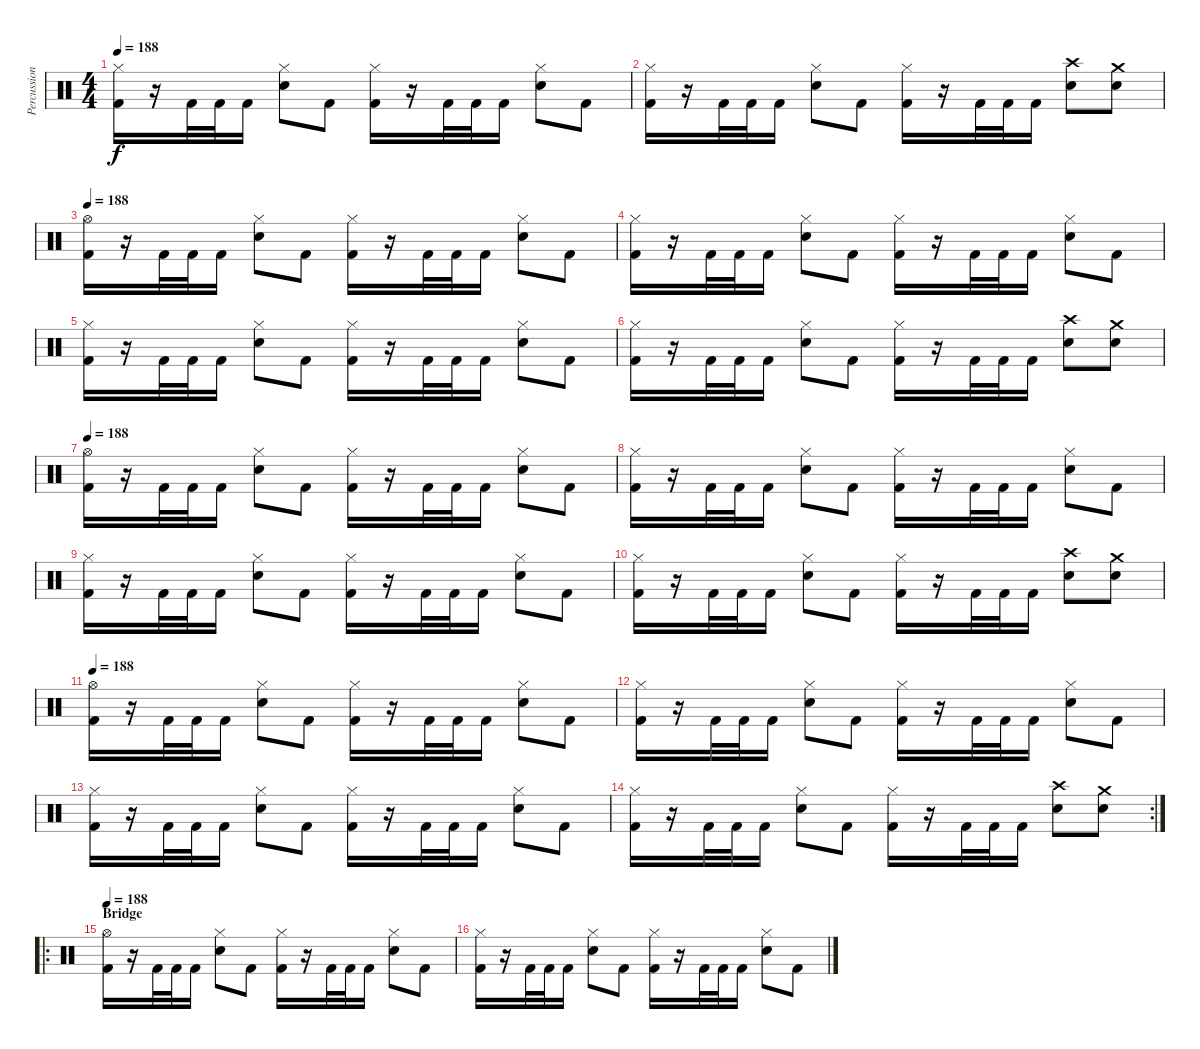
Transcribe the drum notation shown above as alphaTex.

\track ("Percussion" "Percussion") {instrument percussion}
\staff {score}
\articulation defaults
\ts (4 4)
\tempo 188
\clef neutral
\ks c
("Hi-Hat (closed)" "Kick (hit) 2").16{dy f} r.16 "Kick (hit) 2".32 "Kick (hit) 2".32 "Kick (hit) 2".16 ("Hi-Hat (closed)" "Electric Snare (hit)").8 "Kick (hit) 2".8 ("Hi-Hat (closed)" "Kick (hit) 2").16 r.16 "Kick (hit) 2".32 "Kick (hit) 2".32 "Kick (hit) 2".16 ("Hi-Hat (closed)" "Electric Snare (hit)").8 "Kick (hit) 2".8 |
("Hi-Hat (closed)" "Kick (hit) 2").16 r.16 "Kick (hit) 2".32 "Kick (hit) 2".32 "Kick (hit) 2".16 ("Hi-Hat (closed)" "Electric Snare (hit)").8 "Kick (hit) 2".8 ("Hi-Hat (closed)" "Kick (hit) 2").16 r.16 "Kick (hit) 2".32 "Kick (hit) 2".32 "Kick (hit) 2".16 ("Crash high (hit)" "Electric Snare (hit)").8 ("Crash medium (hit)" "Electric Snare (hit)").8 |
\tempo 188
("Hi-Hat (open)" "Kick (hit) 2").16 r.16 "Kick (hit) 2".32 "Kick (hit) 2".32 "Kick (hit) 2".16 ("Hi-Hat (closed)" "Electric Snare (hit)").8 "Kick (hit) 2".8 ("Hi-Hat (closed)" "Kick (hit) 2").16 r.16 "Kick (hit) 2".32 "Kick (hit) 2".32 "Kick (hit) 2".16 ("Hi-Hat (closed)" "Electric Snare (hit)").8 "Kick (hit) 2".8 |
("Hi-Hat (closed)" "Kick (hit) 2").16 r.16 "Kick (hit) 2".32 "Kick (hit) 2".32 "Kick (hit) 2".16 ("Hi-Hat (closed)" "Electric Snare (hit)").8 "Kick (hit) 2".8 ("Hi-Hat (closed)" "Kick (hit) 2").16 r.16 "Kick (hit) 2".32 "Kick (hit) 2".32 "Kick (hit) 2".16 ("Hi-Hat (closed)" "Electric Snare (hit)").8 "Kick (hit) 2".8 |
("Hi-Hat (closed)" "Kick (hit) 2").16 r.16 "Kick (hit) 2".32 "Kick (hit) 2".32 "Kick (hit) 2".16 ("Hi-Hat (closed)" "Electric Snare (hit)").8 "Kick (hit) 2".8 ("Hi-Hat (closed)" "Kick (hit) 2").16 r.16 "Kick (hit) 2".32 "Kick (hit) 2".32 "Kick (hit) 2".16 ("Hi-Hat (closed)" "Electric Snare (hit)").8 "Kick (hit) 2".8 |
("Hi-Hat (closed)" "Kick (hit) 2").16 r.16 "Kick (hit) 2".32 "Kick (hit) 2".32 "Kick (hit) 2".16 ("Hi-Hat (closed)" "Electric Snare (hit)").8 "Kick (hit) 2".8 ("Hi-Hat (closed)" "Kick (hit) 2").16 r.16 "Kick (hit) 2".32 "Kick (hit) 2".32 "Kick (hit) 2".16 ("Crash high (hit)" "Electric Snare (hit)").8 ("Crash medium (hit)" "Electric Snare (hit)").8 |
\tempo 188
("Hi-Hat (open)" "Kick (hit) 2").16 r.16 "Kick (hit) 2".32 "Kick (hit) 2".32 "Kick (hit) 2".16 ("Hi-Hat (closed)" "Electric Snare (hit)").8 "Kick (hit) 2".8 ("Hi-Hat (closed)" "Kick (hit) 2").16 r.16 "Kick (hit) 2".32 "Kick (hit) 2".32 "Kick (hit) 2".16 ("Hi-Hat (closed)" "Electric Snare (hit)").8 "Kick (hit) 2".8 |
("Hi-Hat (closed)" "Kick (hit) 2").16 r.16 "Kick (hit) 2".32 "Kick (hit) 2".32 "Kick (hit) 2".16 ("Hi-Hat (closed)" "Electric Snare (hit)").8 "Kick (hit) 2".8 ("Hi-Hat (closed)" "Kick (hit) 2").16 r.16 "Kick (hit) 2".32 "Kick (hit) 2".32 "Kick (hit) 2".16 ("Hi-Hat (closed)" "Electric Snare (hit)").8 "Kick (hit) 2".8 |
("Hi-Hat (closed)" "Kick (hit) 2").16 r.16 "Kick (hit) 2".32 "Kick (hit) 2".32 "Kick (hit) 2".16 ("Hi-Hat (closed)" "Electric Snare (hit)").8 "Kick (hit) 2".8 ("Hi-Hat (closed)" "Kick (hit) 2").16 r.16 "Kick (hit) 2".32 "Kick (hit) 2".32 "Kick (hit) 2".16 ("Hi-Hat (closed)" "Electric Snare (hit)").8 "Kick (hit) 2".8 |
("Hi-Hat (closed)" "Kick (hit) 2").16 r.16 "Kick (hit) 2".32 "Kick (hit) 2".32 "Kick (hit) 2".16 ("Hi-Hat (closed)" "Electric Snare (hit)").8 "Kick (hit) 2".8 ("Hi-Hat (closed)" "Kick (hit) 2").16 r.16 "Kick (hit) 2".32 "Kick (hit) 2".32 "Kick (hit) 2".16 ("Crash high (hit)" "Electric Snare (hit)").8 ("Crash medium (hit)" "Electric Snare (hit)").8 |
\tempo 188
("Hi-Hat (open)" "Kick (hit) 2").16 r.16 "Kick (hit) 2".32 "Kick (hit) 2".32 "Kick (hit) 2".16 ("Hi-Hat (closed)" "Electric Snare (hit)").8 "Kick (hit) 2".8 ("Hi-Hat (closed)" "Kick (hit) 2").16 r.16 "Kick (hit) 2".32 "Kick (hit) 2".32 "Kick (hit) 2".16 ("Hi-Hat (closed)" "Electric Snare (hit)").8 "Kick (hit) 2".8 |
("Hi-Hat (closed)" "Kick (hit) 2").16 r.16 "Kick (hit) 2".32 "Kick (hit) 2".32 "Kick (hit) 2".16 ("Hi-Hat (closed)" "Electric Snare (hit)").8 "Kick (hit) 2".8 ("Hi-Hat (closed)" "Kick (hit) 2").16 r.16 "Kick (hit) 2".32 "Kick (hit) 2".32 "Kick (hit) 2".16 ("Hi-Hat (closed)" "Electric Snare (hit)").8 "Kick (hit) 2".8 |
("Hi-Hat (closed)" "Kick (hit) 2").16 r.16 "Kick (hit) 2".32 "Kick (hit) 2".32 "Kick (hit) 2".16 ("Hi-Hat (closed)" "Electric Snare (hit)").8 "Kick (hit) 2".8 ("Hi-Hat (closed)" "Kick (hit) 2").16 r.16 "Kick (hit) 2".32 "Kick (hit) 2".32 "Kick (hit) 2".16 ("Hi-Hat (closed)" "Electric Snare (hit)").8 "Kick (hit) 2".8 |
\rc 2
("Hi-Hat (closed)" "Kick (hit) 2").16 r.16 "Kick (hit) 2".32 "Kick (hit) 2".32 "Kick (hit) 2".16 ("Hi-Hat (closed)" "Electric Snare (hit)").8 "Kick (hit) 2".8 ("Hi-Hat (closed)" "Kick (hit) 2").16 r.16 "Kick (hit) 2".32 "Kick (hit) 2".32 "Kick (hit) 2".16 ("Crash high (hit)" "Electric Snare (hit)").8 ("Crash medium (hit)" "Electric Snare (hit)").8 |
\ro
\section ("" "Bridge")
\tempo 188
("Hi-Hat (open)" "Kick (hit) 2").16 r.16 "Kick (hit) 2".32 "Kick (hit) 2".32 "Kick (hit) 2".16 ("Hi-Hat (closed)" "Electric Snare (hit)").8 "Kick (hit) 2".8 ("Hi-Hat (closed)" "Kick (hit) 2").16 r.16 "Kick (hit) 2".32 "Kick (hit) 2".32 "Kick (hit) 2".16 ("Hi-Hat (closed)" "Electric Snare (hit)").8 "Kick (hit) 2".8 |
("Hi-Hat (closed)" "Kick (hit) 2").16 r.16 "Kick (hit) 2".32 "Kick (hit) 2".32 "Kick (hit) 2".16 ("Hi-Hat (closed)" "Electric Snare (hit)").8 "Kick (hit) 2".8 ("Hi-Hat (closed)" "Kick (hit) 2").16 r.16 "Kick (hit) 2".32 "Kick (hit) 2".32 "Kick (hit) 2".16 ("Hi-Hat (closed)" "Electric Snare (hit)").8 "Kick (hit) 2".8
